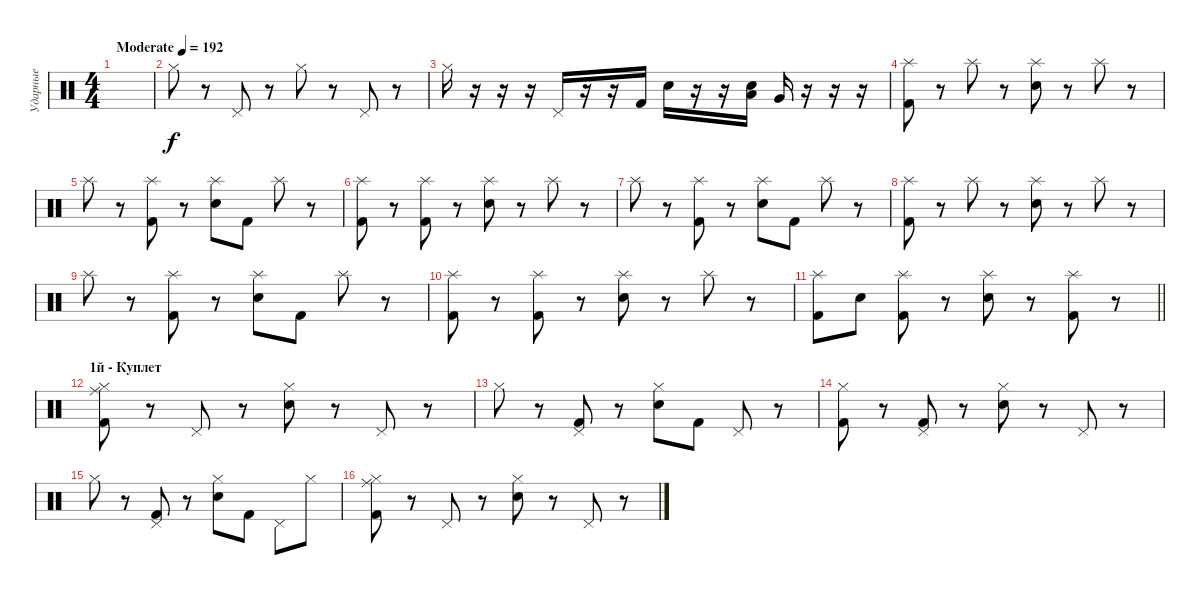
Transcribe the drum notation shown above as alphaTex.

\track ("Ударные" "Ударные") {instrument percussion}
\staff {score}
\articulation defaults
\ts (4 4)
\tempo (192 "Moderate")
\clef neutral
\ks c
|
"Hi-Hat (closed)".8 r.8 "Pedal Hi-Hat (hit)".8 r.8 "Hi-Hat (closed)".8 r.8 "Pedal Hi-Hat (hit)".8 r.8 |
"Hi-Hat (closed)".16 r.16 r.16 r.16 "Pedal Hi-Hat (hit)".16 r.16 r.16 "Kick (hit) 2".16 "Snare (hit) 2".16 r.16 r.16 ("Snare (hit) 2" "Low Tom (hit)").16 "Very Low Tom (hit)".16 r.16 r.16 r.16 |
("Kick (hit) 2" "Splash (hit)").8 r.8 "Splash (hit)".8 r.8 ("Snare (hit) 2" "Splash (hit)").8 r.8 "Splash (hit)".8 r.8 |
"Splash (hit)".8 r.8 ("Kick (hit) 2" "Splash (hit)").8 r.8 ("Snare (hit) 2" "Splash (hit)").8 "Kick (hit) 2".8 "Splash (hit)".8 r.8 |
("Kick (hit) 2" "Splash (hit)").8 r.8 ("Kick (hit) 2" "Splash (hit)").8 r.8 ("Snare (hit) 2" "Splash (hit)").8 r.8 "Splash (hit)".8 r.8 |
"Splash (hit)".8 r.8 ("Kick (hit) 2" "Splash (hit)").8 r.8 ("Snare (hit) 2" "Splash (hit)").8 "Kick (hit) 2".8 "Splash (hit)".8 r.8 |
("Kick (hit) 2" "Splash (hit)").8 r.8 "Splash (hit)".8 r.8 ("Snare (hit) 2" "Splash (hit)").8 r.8 "Splash (hit)".8 r.8 |
"Splash (hit)".8 r.8 ("Kick (hit) 2" "Splash (hit)").8 r.8 ("Snare (hit) 2" "Splash (hit)").8 "Kick (hit) 2".8 "Splash (hit)".8 r.8 |
("Kick (hit) 2" "Splash (hit)").8 r.8 ("Kick (hit) 2" "Splash (hit)").8 r.8 ("Snare (hit) 2" "Splash (hit)").8 r.8 "Splash (hit)".8 r.8 |
\barLineRight lightlight
("Kick (hit) 2" "Splash (hit)").8 "Snare (hit) 2".8 ("Kick (hit) 2" "Splash (hit)").8 r.8 ("Snare (hit) 2" "Splash (hit)").8 r.8 ("Kick (hit) 2" "Splash (hit)").8 r.8 |
\section ("" "1й - Куплет")
("Kick (hit) 2" "Hi-Hat (closed)" "Ride (middle)").8 r.8 "Pedal Hi-Hat (hit)".8 r.8 ("Snare (hit) 2" "Hi-Hat (closed)").8 r.8 "Pedal Hi-Hat (hit)".8 r.8 |
"Hi-Hat (closed)".8 r.8 ("Kick (hit) 2" "Pedal Hi-Hat (hit)").8 r.8 ("Snare (hit) 2" "Hi-Hat (closed)").8 "Kick (hit) 2".8 "Pedal Hi-Hat (hit)".8 r.8 |
("Kick (hit) 2" "Hi-Hat (closed)").8 r.8 ("Kick (hit) 2" "Pedal Hi-Hat (hit)").8 r.8 ("Snare (hit) 2" "Hi-Hat (closed)").8 r.8 "Pedal Hi-Hat (hit)".8 r.8 |
"Hi-Hat (closed)".8 r.8 ("Kick (hit) 2" "Pedal Hi-Hat (hit)").8 r.8 ("Snare (hit) 2" "Hi-Hat (closed)").8 "Kick (hit) 2".8 "Pedal Hi-Hat (hit)".8 "Hi-Hat (closed)".8 |
("Kick (hit) 2" "Hi-Hat (closed)" "Ride (middle)").8 r.8 "Pedal Hi-Hat (hit)".8 r.8 ("Snare (hit) 2" "Hi-Hat (closed)").8 r.8 "Pedal Hi-Hat (hit)".8 r.8
